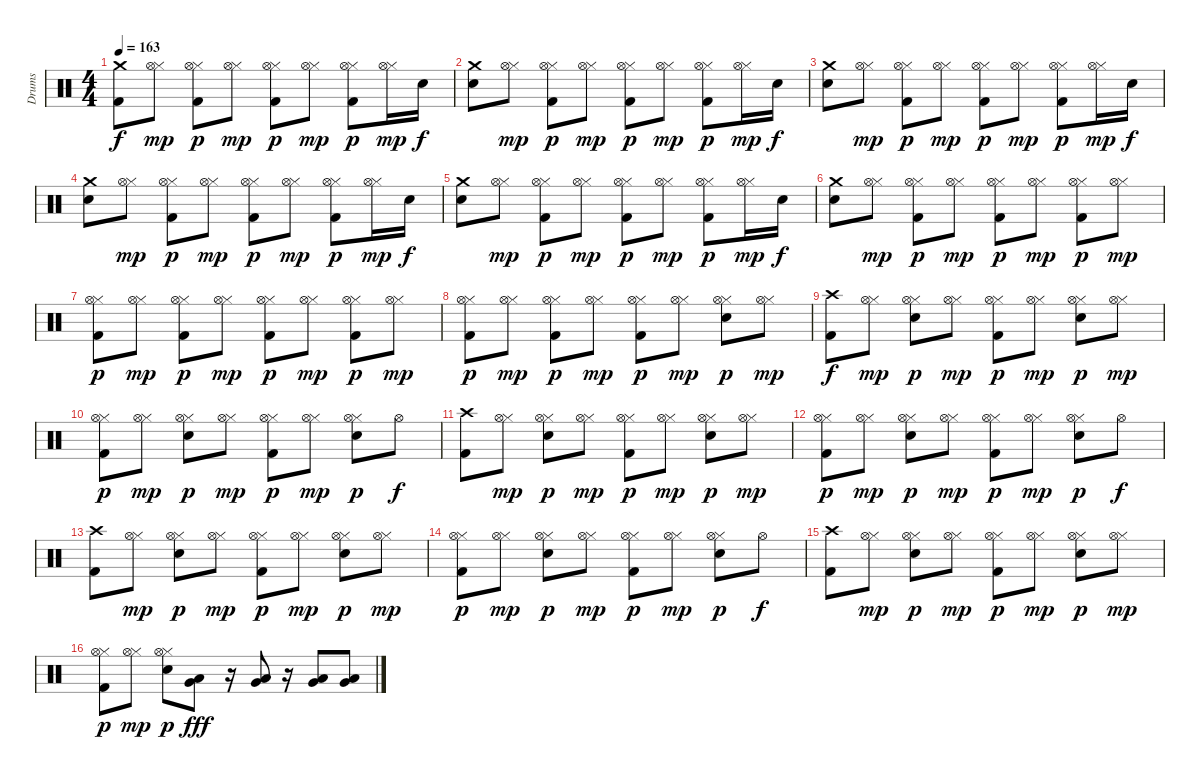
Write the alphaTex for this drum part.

\track ("Drums" "Drums") {instrument percussion}
\staff {score}
\articulation defaults
\ts (4 4)
\tempo 163
\clef neutral
\ks c
("Kick (hit) 2" "Crash medium (hit)").8{dy f} ("Hi-Hat (closed)" "Hi-Hat (open)").8{dy mp} ("Kick (hit) 2" "Hi-Hat (closed)" "Hi-Hat (open)").8{dy p} ("Hi-Hat (closed)" "Hi-Hat (open)").8{dy mp} ("Kick (hit) 2" "Hi-Hat (closed)" "Hi-Hat (open)").8{dy p} ("Hi-Hat (closed)" "Hi-Hat (open)").8{dy mp} ("Kick (hit) 2" "Hi-Hat (closed)" "Hi-Hat (open)").8{dy p} ("Hi-Hat (closed)" "Hi-Hat (open)").16{dy mp} "Electric Snare (hit)".16{dy f} |
("Electric Snare (hit)" "Crash medium (hit)").8 ("Hi-Hat (closed)" "Hi-Hat (open)").8{dy mp} ("Kick (hit) 2" "Hi-Hat (closed)" "Hi-Hat (open)").8{dy p} ("Hi-Hat (closed)" "Hi-Hat (open)").8{dy mp} ("Kick (hit) 2" "Hi-Hat (closed)" "Hi-Hat (open)").8{dy p} ("Hi-Hat (closed)" "Hi-Hat (open)").8{dy mp} ("Kick (hit) 2" "Hi-Hat (closed)" "Hi-Hat (open)").8{dy p} ("Hi-Hat (closed)" "Hi-Hat (open)").16{dy mp} "Electric Snare (hit)".16{dy f} |
("Electric Snare (hit)" "Crash medium (hit)").8 ("Hi-Hat (closed)" "Hi-Hat (open)").8{dy mp} ("Kick (hit) 2" "Hi-Hat (closed)" "Hi-Hat (open)").8{dy p} ("Hi-Hat (closed)" "Hi-Hat (open)").8{dy mp} ("Kick (hit) 2" "Hi-Hat (closed)" "Hi-Hat (open)").8{dy p} ("Hi-Hat (closed)" "Hi-Hat (open)").8{dy mp} ("Kick (hit) 2" "Hi-Hat (closed)" "Hi-Hat (open)").8{dy p} ("Hi-Hat (closed)" "Hi-Hat (open)").16{dy mp} "Electric Snare (hit)".16{dy f} |
("Electric Snare (hit)" "Crash medium (hit)").8 ("Hi-Hat (closed)" "Hi-Hat (open)").8{dy mp} ("Kick (hit) 2" "Hi-Hat (closed)" "Hi-Hat (open)").8{dy p} ("Hi-Hat (closed)" "Hi-Hat (open)").8{dy mp} ("Kick (hit) 2" "Hi-Hat (closed)" "Hi-Hat (open)").8{dy p} ("Hi-Hat (closed)" "Hi-Hat (open)").8{dy mp} ("Kick (hit) 2" "Hi-Hat (closed)" "Hi-Hat (open)").8{dy p} ("Hi-Hat (closed)" "Hi-Hat (open)").16{dy mp} "Electric Snare (hit)".16{dy f} |
("Electric Snare (hit)" "Crash medium (hit)").8 ("Hi-Hat (closed)" "Hi-Hat (open)").8{dy mp} ("Kick (hit) 2" "Hi-Hat (closed)" "Hi-Hat (open)").8{dy p} ("Hi-Hat (closed)" "Hi-Hat (open)").8{dy mp} ("Kick (hit) 2" "Hi-Hat (closed)" "Hi-Hat (open)").8{dy p} ("Hi-Hat (closed)" "Hi-Hat (open)").8{dy mp} ("Kick (hit) 2" "Hi-Hat (closed)" "Hi-Hat (open)").8{dy p} ("Hi-Hat (closed)" "Hi-Hat (open)").16{dy mp} "Electric Snare (hit)".16{dy f} |
("Electric Snare (hit)" "Crash medium (hit)").8 ("Hi-Hat (closed)" "Hi-Hat (open)").8{dy mp} ("Kick (hit) 2" "Hi-Hat (closed)" "Hi-Hat (open)").8{dy p} ("Hi-Hat (closed)" "Hi-Hat (open)").8{dy mp} ("Kick (hit) 2" "Hi-Hat (closed)" "Hi-Hat (open)").8{dy p} ("Hi-Hat (closed)" "Hi-Hat (open)").8{dy mp} ("Kick (hit) 2" "Hi-Hat (closed)" "Hi-Hat (open)").8{dy p} ("Hi-Hat (closed)" "Hi-Hat (open)").8{dy mp} |
("Kick (hit) 2" "Hi-Hat (closed)" "Hi-Hat (open)").8{dy p} ("Hi-Hat (closed)" "Hi-Hat (open)").8{dy mp} ("Kick (hit) 2" "Hi-Hat (closed)" "Hi-Hat (open)").8{dy p} ("Hi-Hat (closed)" "Hi-Hat (open)").8{dy mp} ("Kick (hit) 2" "Hi-Hat (closed)" "Hi-Hat (open)").8{dy p} ("Hi-Hat (closed)" "Hi-Hat (open)").8{dy mp} ("Kick (hit) 2" "Hi-Hat (closed)" "Hi-Hat (open)").8{dy p} ("Hi-Hat (closed)" "Hi-Hat (open)").8{dy mp} |
("Kick (hit) 2" "Hi-Hat (closed)" "Hi-Hat (open)").8{dy p} ("Hi-Hat (closed)" "Hi-Hat (open)").8{dy mp} ("Kick (hit) 2" "Hi-Hat (closed)" "Hi-Hat (open)").8{dy p} ("Hi-Hat (closed)" "Hi-Hat (open)").8{dy mp} ("Kick (hit) 2" "Hi-Hat (closed)" "Hi-Hat (open)").8{dy p} ("Hi-Hat (closed)" "Hi-Hat (open)").8{dy mp} ("Electric Snare (hit)" "Hi-Hat (closed)" "Hi-Hat (open)").8{dy p} ("Hi-Hat (closed)" "Hi-Hat (open)").8{dy mp} |
("Kick (hit) 2" "Crash high (hit)").8{dy f} ("Hi-Hat (closed)" "Hi-Hat (open)").8{dy mp} ("Electric Snare (hit)" "Hi-Hat (closed)" "Hi-Hat (open)").8{dy p} ("Hi-Hat (closed)" "Hi-Hat (open)").8{dy mp} ("Kick (hit) 2" "Hi-Hat (closed)" "Hi-Hat (open)").8{dy p} ("Hi-Hat (closed)" "Hi-Hat (open)").8{dy mp} ("Electric Snare (hit)" "Hi-Hat (closed)" "Hi-Hat (open)").8{dy p} ("Hi-Hat (closed)" "Hi-Hat (open)").8{dy mp} |
("Kick (hit) 2" "Hi-Hat (closed)" "Hi-Hat (open)").8{dy p} ("Hi-Hat (closed)" "Hi-Hat (open)").8{dy mp} ("Electric Snare (hit)" "Hi-Hat (closed)" "Hi-Hat (open)").8{dy p} ("Hi-Hat (closed)" "Hi-Hat (open)").8{dy mp} ("Kick (hit) 2" "Hi-Hat (closed)" "Hi-Hat (open)").8{dy p} ("Hi-Hat (closed)" "Hi-Hat (open)").8{dy mp} ("Electric Snare (hit)" "Hi-Hat (closed)" "Hi-Hat (open)").8{dy p} "Hi-Hat (open)".8{dy f} |
("Kick (hit) 2" "Crash high (hit)").8 ("Hi-Hat (closed)" "Hi-Hat (open)").8{dy mp} ("Electric Snare (hit)" "Hi-Hat (closed)" "Hi-Hat (open)").8{dy p} ("Hi-Hat (closed)" "Hi-Hat (open)").8{dy mp} ("Kick (hit) 2" "Hi-Hat (closed)" "Hi-Hat (open)").8{dy p} ("Hi-Hat (closed)" "Hi-Hat (open)").8{dy mp} ("Electric Snare (hit)" "Hi-Hat (closed)" "Hi-Hat (open)").8{dy p} ("Hi-Hat (closed)" "Hi-Hat (open)").8{dy mp} |
("Kick (hit) 2" "Hi-Hat (closed)" "Hi-Hat (open)").8{dy p} ("Hi-Hat (closed)" "Hi-Hat (open)").8{dy mp} ("Electric Snare (hit)" "Hi-Hat (closed)" "Hi-Hat (open)").8{dy p} ("Hi-Hat (closed)" "Hi-Hat (open)").8{dy mp} ("Kick (hit) 2" "Hi-Hat (closed)" "Hi-Hat (open)").8{dy p} ("Hi-Hat (closed)" "Hi-Hat (open)").8{dy mp} ("Electric Snare (hit)" "Hi-Hat (closed)" "Hi-Hat (open)").8{dy p} "Hi-Hat (open)".8{dy f} |
("Kick (hit) 2" "Crash high (hit)").8 ("Hi-Hat (closed)" "Hi-Hat (open)").8{dy mp} ("Electric Snare (hit)" "Hi-Hat (closed)" "Hi-Hat (open)").8{dy p} ("Hi-Hat (closed)" "Hi-Hat (open)").8{dy mp} ("Kick (hit) 2" "Hi-Hat (closed)" "Hi-Hat (open)").8{dy p} ("Hi-Hat (closed)" "Hi-Hat (open)").8{dy mp} ("Electric Snare (hit)" "Hi-Hat (closed)" "Hi-Hat (open)").8{dy p} ("Hi-Hat (closed)" "Hi-Hat (open)").8{dy mp} |
("Kick (hit) 2" "Hi-Hat (closed)" "Hi-Hat (open)").8{dy p} ("Hi-Hat (closed)" "Hi-Hat (open)").8{dy mp} ("Electric Snare (hit)" "Hi-Hat (closed)" "Hi-Hat (open)").8{dy p} ("Hi-Hat (closed)" "Hi-Hat (open)").8{dy mp} ("Kick (hit) 2" "Hi-Hat (closed)" "Hi-Hat (open)").8{dy p} ("Hi-Hat (closed)" "Hi-Hat (open)").8{dy mp} ("Electric Snare (hit)" "Hi-Hat (closed)" "Hi-Hat (open)").8{dy p} "Hi-Hat (open)".8{dy f} |
("Kick (hit) 2" "Crash high (hit)").8 ("Hi-Hat (closed)" "Hi-Hat (open)").8{dy mp} ("Electric Snare (hit)" "Hi-Hat (closed)" "Hi-Hat (open)").8{dy p} ("Hi-Hat (closed)" "Hi-Hat (open)").8{dy mp} ("Kick (hit) 2" "Hi-Hat (closed)" "Hi-Hat (open)").8{dy p} ("Hi-Hat (closed)" "Hi-Hat (open)").8{dy mp} ("Electric Snare (hit)" "Hi-Hat (closed)" "Hi-Hat (open)").8{dy p} ("Hi-Hat (closed)" "Hi-Hat (open)").8{dy mp} |
("Kick (hit) 2" "Hi-Hat (closed)" "Hi-Hat (open)").8{dy p} ("Hi-Hat (closed)" "Hi-Hat (open)").8{dy mp} ("Electric Snare (hit)" "Hi-Hat (closed)" "Hi-Hat (open)").8{dy p} ("Low Floor Tom (hit)" "Very Low Tom (hit)").8{dy fff} r.16 ("Low Floor Tom (hit)" "Very Low Tom (hit)").8 r.16 ("Low Floor Tom (hit)" "Very Low Tom (hit)").8 ("Low Floor Tom (hit)" "Very Low Tom (hit)").8
